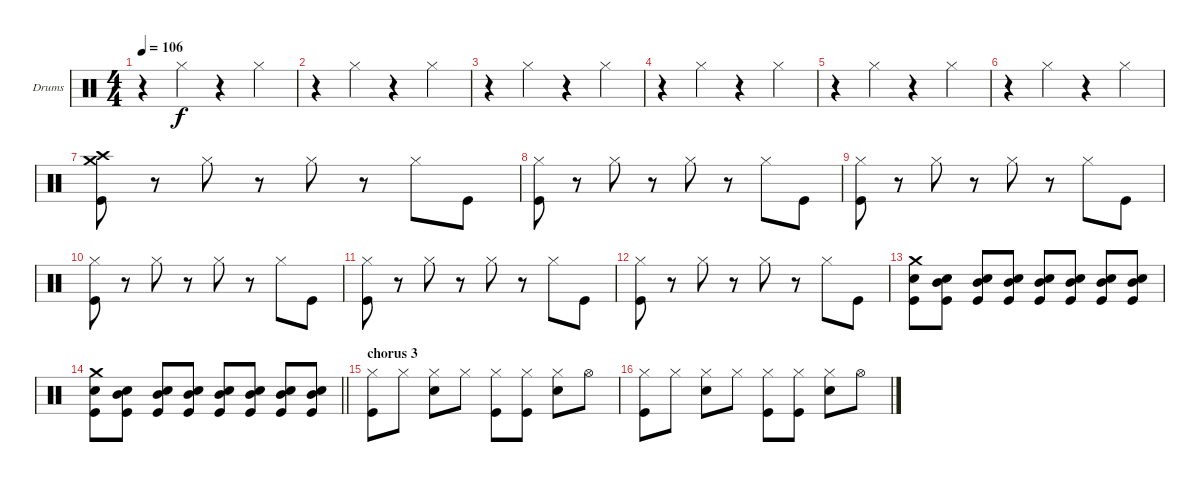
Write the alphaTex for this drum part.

\bracketExtendMode groupsimilarinstruments
\firstSystemTrackNameOrientation horizontal
\otherSystemsTrackNameOrientation horizontal
\track ("Drumkit" "Drums") {instrument percussion}
\staff {score}
\articulation defaults
\ts (4 4)
\tempo 106
\clef neutral
\ks c
r.4{dy f} "Hi-Hat (closed)".4 r.4 "Hi-Hat (closed)".4 |
r.4 "Hi-Hat (closed)".4 r.4 "Hi-Hat (closed)".4 |
r.4 "Hi-Hat (closed)".4 r.4 "Hi-Hat (closed)".4 |
r.4 "Hi-Hat (closed)".4 r.4 "Hi-Hat (closed)".4 |
r.4 "Hi-Hat (closed)".4 r.4 "Hi-Hat (closed)".4 |
r.4 "Hi-Hat (closed)".4 r.4 "Hi-Hat (closed)".4 |
("Crash medium (hit)" "Crash high (hit)" "Kick (hit)").8 r.8 "Hi-Hat (closed)".8 r.8 "Hi-Hat (closed)".8 r.8 "Hi-Hat (closed)".8 "Kick (hit)".8 |
("Hi-Hat (closed)" "Kick (hit)").8 r.8 "Hi-Hat (closed)".8 r.8 "Hi-Hat (closed)".8 r.8 "Hi-Hat (closed)".8 "Kick (hit)".8 |
("Hi-Hat (closed)" "Kick (hit)").8 r.8 "Hi-Hat (closed)".8 r.8 "Hi-Hat (closed)".8 r.8 "Hi-Hat (closed)".8 "Kick (hit)".8 |
("Hi-Hat (closed)" "Kick (hit)").8 r.8 "Hi-Hat (closed)".8 r.8 "Hi-Hat (closed)".8 r.8 "Hi-Hat (closed)".8 "Kick (hit)".8 |
("Hi-Hat (closed)" "Kick (hit)").8 r.8 "Hi-Hat (closed)".8 r.8 "Hi-Hat (closed)".8 r.8 "Hi-Hat (closed)".8 "Kick (hit)".8 |
("Hi-Hat (closed)" "Kick (hit)").8 r.8 "Hi-Hat (closed)".8 r.8 "Hi-Hat (closed)".8 r.8 "Hi-Hat (closed)".8 "Kick (hit)".8 |
("Crash medium (hit)" "Snare (hit) 2" "Kick (hit)").8 ("Mid Tom (hit)" "Snare (hit) 2" "Kick (hit)").8 ("Mid Tom (hit)" "Snare (hit) 2" "Kick (hit)").8 ("Mid Tom (hit)" "Snare (hit) 2" "Kick (hit)").8 ("Mid Tom (hit)" "Snare (hit) 2" "Kick (hit)").8 ("Mid Tom (hit)" "Snare (hit) 2" "Kick (hit)").8 ("Mid Tom (hit)" "Snare (hit) 2" "Kick (hit)").8 ("Mid Tom (hit)" "Snare (hit) 2" "Kick (hit)").8 |
\barLineRight lightlight
("Crash medium (hit)" "Snare (hit) 2" "Kick (hit)").8 ("Mid Tom (hit)" "Snare (hit) 2" "Kick (hit)").8 ("Mid Tom (hit)" "Snare (hit) 2" "Kick (hit)").8 ("Mid Tom (hit)" "Snare (hit) 2" "Kick (hit)").8 ("Mid Tom (hit)" "Snare (hit) 2" "Kick (hit)").8 ("Mid Tom (hit)" "Snare (hit) 2" "Kick (hit)").8 ("Mid Tom (hit)" "Snare (hit) 2" "Kick (hit)").8 ("Mid Tom (hit)" "Snare (hit) 2" "Kick (hit)").8 |
\section ("" "chorus 3")
("Hi-Hat (closed)" "Kick (hit)").8 "Hi-Hat (closed)".8 ("Hi-Hat (closed)" "Snare (hit) 2").8 "Hi-Hat (closed)".8 ("Hi-Hat (closed)" "Kick (hit)").8 ("Hi-Hat (closed)" "Kick (hit)").8 ("Hi-Hat (closed)" "Snare (hit) 2").8 "Hi-Hat (open)".8 |
("Hi-Hat (closed)" "Kick (hit)").8 "Hi-Hat (closed)".8 ("Hi-Hat (closed)" "Snare (hit) 2").8 "Hi-Hat (closed)".8 ("Hi-Hat (closed)" "Kick (hit)").8 ("Hi-Hat (closed)" "Kick (hit)").8 ("Hi-Hat (closed)" "Snare (hit) 2").8 "Hi-Hat (open)".8
